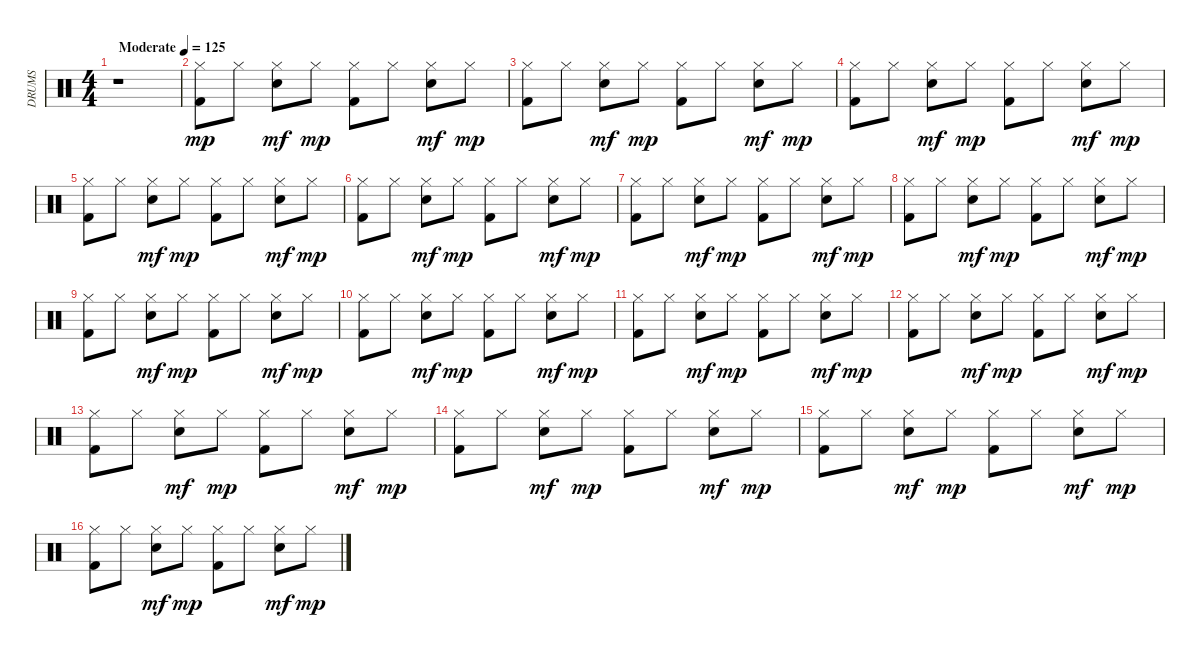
\track ("DRUMS" "DRUMS") {instrument percussion}
\staff {score}
\articulation defaults
\ts (4 4)
\tempo (125 "Moderate")
\clef neutral
\ks c
r.1{dy mp} |
("Hi-Hat (closed)" "Kick (hit) 2").8 "Hi-Hat (closed)".8 ("Hi-Hat (closed)" "Snare (hit) 2").8{dy mf} "Hi-Hat (closed)".8{dy mp} ("Hi-Hat (closed)" "Kick (hit) 2").8 "Hi-Hat (closed)".8 ("Hi-Hat (closed)" "Snare (hit) 2").8{dy mf} "Hi-Hat (closed)".8{dy mp} |
("Hi-Hat (closed)" "Kick (hit) 2").8 "Hi-Hat (closed)".8 ("Hi-Hat (closed)" "Snare (hit) 2").8{dy mf} "Hi-Hat (closed)".8{dy mp} ("Hi-Hat (closed)" "Kick (hit) 2").8 "Hi-Hat (closed)".8 ("Hi-Hat (closed)" "Snare (hit) 2").8{dy mf} "Hi-Hat (closed)".8{dy mp} |
("Hi-Hat (closed)" "Kick (hit) 2").8 "Hi-Hat (closed)".8 ("Hi-Hat (closed)" "Snare (hit) 2").8{dy mf} "Hi-Hat (closed)".8{dy mp} ("Hi-Hat (closed)" "Kick (hit) 2").8 "Hi-Hat (closed)".8 ("Hi-Hat (closed)" "Snare (hit) 2").8{dy mf} "Hi-Hat (closed)".8{dy mp} |
("Hi-Hat (closed)" "Kick (hit) 2").8 "Hi-Hat (closed)".8 ("Hi-Hat (closed)" "Snare (hit) 2").8{dy mf} "Hi-Hat (closed)".8{dy mp} ("Hi-Hat (closed)" "Kick (hit) 2").8 "Hi-Hat (closed)".8 ("Hi-Hat (closed)" "Snare (hit) 2").8{dy mf} "Hi-Hat (closed)".8{dy mp} |
("Hi-Hat (closed)" "Kick (hit) 2").8 "Hi-Hat (closed)".8 ("Hi-Hat (closed)" "Snare (hit) 2").8{dy mf} "Hi-Hat (closed)".8{dy mp} ("Hi-Hat (closed)" "Kick (hit) 2").8 "Hi-Hat (closed)".8 ("Hi-Hat (closed)" "Snare (hit) 2").8{dy mf} "Hi-Hat (closed)".8{dy mp} |
("Hi-Hat (closed)" "Kick (hit) 2").8 "Hi-Hat (closed)".8 ("Hi-Hat (closed)" "Snare (hit) 2").8{dy mf} "Hi-Hat (closed)".8{dy mp} ("Hi-Hat (closed)" "Kick (hit) 2").8 "Hi-Hat (closed)".8 ("Hi-Hat (closed)" "Snare (hit) 2").8{dy mf} "Hi-Hat (closed)".8{dy mp} |
("Hi-Hat (closed)" "Kick (hit) 2").8 "Hi-Hat (closed)".8 ("Hi-Hat (closed)" "Snare (hit) 2").8{dy mf} "Hi-Hat (closed)".8{dy mp} ("Hi-Hat (closed)" "Kick (hit) 2").8 "Hi-Hat (closed)".8 ("Hi-Hat (closed)" "Snare (hit) 2").8{dy mf} "Hi-Hat (closed)".8{dy mp} |
("Hi-Hat (closed)" "Kick (hit) 2").8 "Hi-Hat (closed)".8 ("Hi-Hat (closed)" "Snare (hit) 2").8{dy mf} "Hi-Hat (closed)".8{dy mp} ("Hi-Hat (closed)" "Kick (hit) 2").8 "Hi-Hat (closed)".8 ("Hi-Hat (closed)" "Snare (hit) 2").8{dy mf} "Hi-Hat (closed)".8{dy mp} |
("Hi-Hat (closed)" "Kick (hit) 2").8 "Hi-Hat (closed)".8 ("Hi-Hat (closed)" "Snare (hit) 2").8{dy mf} "Hi-Hat (closed)".8{dy mp} ("Hi-Hat (closed)" "Kick (hit) 2").8 "Hi-Hat (closed)".8 ("Hi-Hat (closed)" "Snare (hit) 2").8{dy mf} "Hi-Hat (closed)".8{dy mp} |
("Hi-Hat (closed)" "Kick (hit) 2").8 "Hi-Hat (closed)".8 ("Hi-Hat (closed)" "Snare (hit) 2").8{dy mf} "Hi-Hat (closed)".8{dy mp} ("Hi-Hat (closed)" "Kick (hit) 2").8 "Hi-Hat (closed)".8 ("Hi-Hat (closed)" "Snare (hit) 2").8{dy mf} "Hi-Hat (closed)".8{dy mp} |
("Hi-Hat (closed)" "Kick (hit) 2").8 "Hi-Hat (closed)".8 ("Hi-Hat (closed)" "Snare (hit) 2").8{dy mf} "Hi-Hat (closed)".8{dy mp} ("Hi-Hat (closed)" "Kick (hit) 2").8 "Hi-Hat (closed)".8 ("Hi-Hat (closed)" "Snare (hit) 2").8{dy mf} "Hi-Hat (closed)".8{dy mp} |
("Hi-Hat (closed)" "Kick (hit) 2").8 "Hi-Hat (closed)".8 ("Hi-Hat (closed)" "Snare (hit) 2").8{dy mf} "Hi-Hat (closed)".8{dy mp} ("Hi-Hat (closed)" "Kick (hit) 2").8 "Hi-Hat (closed)".8 ("Hi-Hat (closed)" "Snare (hit) 2").8{dy mf} "Hi-Hat (closed)".8{dy mp} |
("Hi-Hat (closed)" "Kick (hit) 2").8 "Hi-Hat (closed)".8 ("Hi-Hat (closed)" "Snare (hit) 2").8{dy mf} "Hi-Hat (closed)".8{dy mp} ("Hi-Hat (closed)" "Kick (hit) 2").8 "Hi-Hat (closed)".8 ("Hi-Hat (closed)" "Snare (hit) 2").8{dy mf} "Hi-Hat (closed)".8{dy mp} |
("Hi-Hat (closed)" "Kick (hit) 2").8 "Hi-Hat (closed)".8 ("Hi-Hat (closed)" "Snare (hit) 2").8{dy mf} "Hi-Hat (closed)".8{dy mp} ("Hi-Hat (closed)" "Kick (hit) 2").8 "Hi-Hat (closed)".8 ("Hi-Hat (closed)" "Snare (hit) 2").8{dy mf} "Hi-Hat (closed)".8{dy mp} |
("Hi-Hat (closed)" "Kick (hit) 2").8 "Hi-Hat (closed)".8 ("Hi-Hat (closed)" "Snare (hit) 2").8{dy mf} "Hi-Hat (closed)".8{dy mp} ("Hi-Hat (closed)" "Kick (hit) 2").8 "Hi-Hat (closed)".8 ("Hi-Hat (closed)" "Snare (hit) 2").8{dy mf} "Hi-Hat (closed)".8{dy mp}
